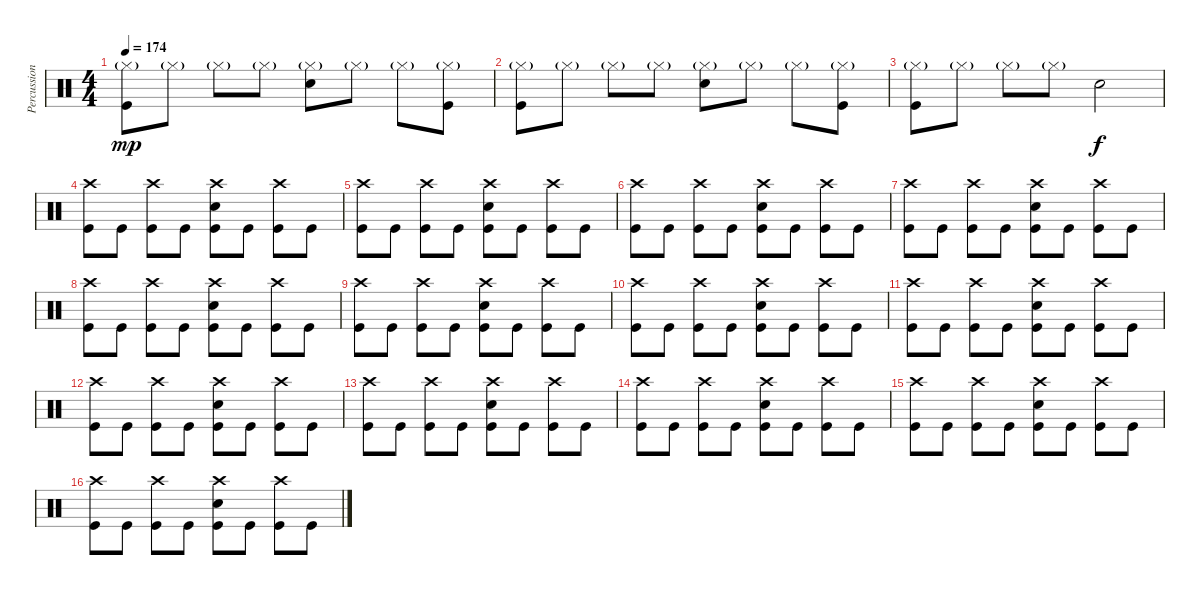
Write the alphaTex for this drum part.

\track ("Percussion" "Percussion") {instrument percussion}
\staff {score}
\articulation defaults
\ts (4 4)
\tempo 174
\clef neutral
\ks c
("Hi-Hat (closed)"{g} "Kick (hit)").8{dy mp} "Hi-Hat (closed)"{g}.8 "Hi-Hat (closed)"{g}.8 "Hi-Hat (closed)"{g}.8 ("Hi-Hat (closed)"{g} "Electric Snare (hit)").8 "Hi-Hat (closed)"{g}.8 "Hi-Hat (closed)"{g}.8 ("Hi-Hat (closed)"{g} "Kick (hit)").8 |
("Hi-Hat (closed)"{g} "Kick (hit)").8 "Hi-Hat (closed)"{g}.8 "Hi-Hat (closed)"{g}.8 "Hi-Hat (closed)"{g}.8 ("Hi-Hat (closed)"{g} "Electric Snare (hit)").8 "Hi-Hat (closed)"{g}.8 "Hi-Hat (closed)"{g}.8 ("Hi-Hat (closed)"{g} "Kick (hit)").8 |
("Hi-Hat (closed)"{g} "Kick (hit)").8 "Hi-Hat (closed)"{g}.8 "Hi-Hat (closed)"{g}.8 "Hi-Hat (closed)"{g}.8 "Electric Snare (hit)".2{dy f} |
("Crash high (hit)" "Kick (hit)").8 "Kick (hit)".8 ("Crash high (hit)" "Kick (hit)").8 "Kick (hit)".8 ("Crash high (hit)" "Electric Snare (hit)" "Kick (hit)").8 "Kick (hit)".8 ("Crash high (hit)" "Kick (hit)").8 "Kick (hit)".8 |
("Crash high (hit)" "Kick (hit)").8 "Kick (hit)".8 ("Crash high (hit)" "Kick (hit)").8 "Kick (hit)".8 ("Crash high (hit)" "Electric Snare (hit)" "Kick (hit)").8 "Kick (hit)".8 ("Crash high (hit)" "Kick (hit)").8 "Kick (hit)".8 |
("Crash high (hit)" "Kick (hit)").8 "Kick (hit)".8 ("Crash high (hit)" "Kick (hit)").8 "Kick (hit)".8 ("Crash high (hit)" "Electric Snare (hit)" "Kick (hit)").8 "Kick (hit)".8 ("Crash high (hit)" "Kick (hit)").8 "Kick (hit)".8 |
("Crash high (hit)" "Kick (hit)").8 "Kick (hit)".8 ("Crash high (hit)" "Kick (hit)").8 "Kick (hit)".8 ("Crash high (hit)" "Electric Snare (hit)" "Kick (hit)").8 "Kick (hit)".8 ("Crash high (hit)" "Kick (hit)").8 "Kick (hit)".8 |
("Crash high (hit)" "Kick (hit)").8 "Kick (hit)".8 ("Crash high (hit)" "Kick (hit)").8 "Kick (hit)".8 ("Crash high (hit)" "Electric Snare (hit)" "Kick (hit)").8 "Kick (hit)".8 ("Crash high (hit)" "Kick (hit)").8 "Kick (hit)".8 |
("Crash high (hit)" "Kick (hit)").8 "Kick (hit)".8 ("Crash high (hit)" "Kick (hit)").8 "Kick (hit)".8 ("Crash high (hit)" "Electric Snare (hit)" "Kick (hit)").8 "Kick (hit)".8 ("Crash high (hit)" "Kick (hit)").8 "Kick (hit)".8 |
("Crash high (hit)" "Kick (hit)").8 "Kick (hit)".8 ("Crash high (hit)" "Kick (hit)").8 "Kick (hit)".8 ("Crash high (hit)" "Electric Snare (hit)" "Kick (hit)").8 "Kick (hit)".8 ("Crash high (hit)" "Kick (hit)").8 "Kick (hit)".8 |
("Crash high (hit)" "Kick (hit)").8 "Kick (hit)".8 ("Crash high (hit)" "Kick (hit)").8 "Kick (hit)".8 ("Crash high (hit)" "Electric Snare (hit)" "Kick (hit)").8 "Kick (hit)".8 ("Crash high (hit)" "Kick (hit)").8 "Kick (hit)".8 |
("Crash high (hit)" "Kick (hit)").8 "Kick (hit)".8 ("Crash high (hit)" "Kick (hit)").8 "Kick (hit)".8 ("Crash high (hit)" "Electric Snare (hit)" "Kick (hit)").8 "Kick (hit)".8 ("Crash high (hit)" "Kick (hit)").8 "Kick (hit)".8 |
("Crash high (hit)" "Kick (hit)").8 "Kick (hit)".8 ("Crash high (hit)" "Kick (hit)").8 "Kick (hit)".8 ("Crash high (hit)" "Electric Snare (hit)" "Kick (hit)").8 "Kick (hit)".8 ("Crash high (hit)" "Kick (hit)").8 "Kick (hit)".8 |
("Crash high (hit)" "Kick (hit)").8 "Kick (hit)".8 ("Crash high (hit)" "Kick (hit)").8 "Kick (hit)".8 ("Crash high (hit)" "Electric Snare (hit)" "Kick (hit)").8 "Kick (hit)".8 ("Crash high (hit)" "Kick (hit)").8 "Kick (hit)".8 |
("Crash high (hit)" "Kick (hit)").8 "Kick (hit)".8 ("Crash high (hit)" "Kick (hit)").8 "Kick (hit)".8 ("Crash high (hit)" "Electric Snare (hit)" "Kick (hit)").8 "Kick (hit)".8 ("Crash high (hit)" "Kick (hit)").8 "Kick (hit)".8 |
("Crash high (hit)" "Kick (hit)").8 "Kick (hit)".8 ("Crash high (hit)" "Kick (hit)").8 "Kick (hit)".8 ("Crash high (hit)" "Electric Snare (hit)" "Kick (hit)").8 "Kick (hit)".8 ("Crash high (hit)" "Kick (hit)").8 "Kick (hit)".8
